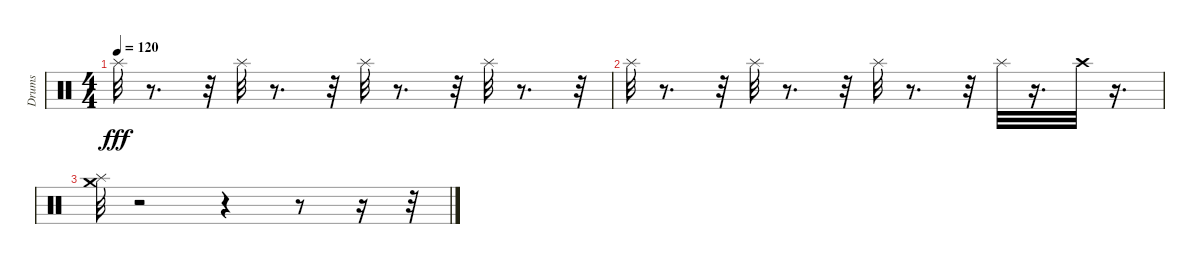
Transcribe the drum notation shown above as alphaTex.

\track ("Drums" "Drums") {instrument percussion}
\staff {score}
\articulation defaults
\ts (4 4)
\tempo 120
\clef neutral
\ks c "Splash (hit)".32{dy fff}
r.8{d} r.32 "Splash (hit)".32 r.8{d} r.32 "Splash (hit)".32 r.8{d} r.32 "Splash (hit)".32 r.8{d} r.32 |
"Splash (hit)".32 r.8{d} r.32 "Splash (hit)".32 r.8{d} r.32 "Splash (hit)".32 r.8{d} r.32 "Splash (hit)".32 r.16{d} "Crash high (hit)".32 r.16{d} |
("Splash (hit)" "Crash medium (hit)").32 r.2 r.4 r.8 r.16 r.32
